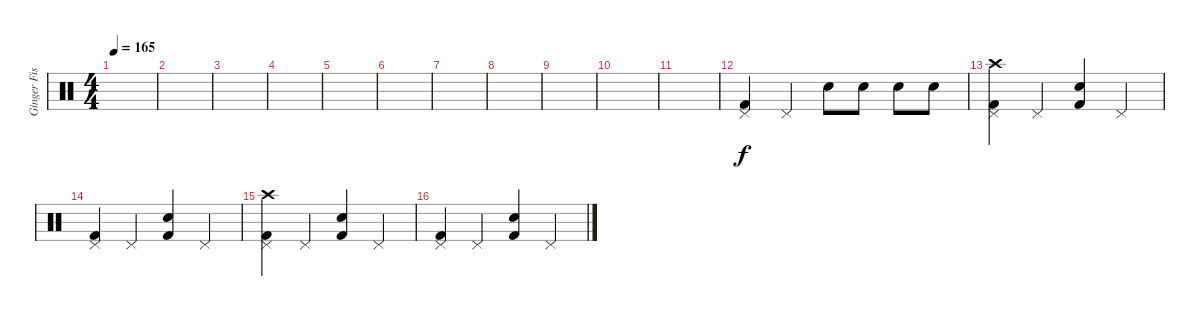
\track ("Ginger Fish" "Ginger Fis") {instrument percussion}
\staff {score}
\articulation defaults
\ts (4 4)
\tempo 165
\clef neutral
\ks c
|
|
|
|
|
|
|
|
|
|
|
("Pedal Hi-Hat (hit)" "Kick (hit) 2").4 "Pedal Hi-Hat (hit)".4 "Electric Snare (hit)".8 "Electric Snare (hit)".8 "Electric Snare (hit)".8 "Electric Snare (hit)".8 |
("Crash high (hit)" "Pedal Hi-Hat (hit)" "Kick (hit) 2").4 "Pedal Hi-Hat (hit)".4 ("Electric Snare (hit)" "Kick (hit) 2").4 "Pedal Hi-Hat (hit)".4 |
("Pedal Hi-Hat (hit)" "Kick (hit) 2").4 "Pedal Hi-Hat (hit)".4 ("Electric Snare (hit)" "Kick (hit) 2").4 "Pedal Hi-Hat (hit)".4 |
("Crash high (hit)" "Pedal Hi-Hat (hit)" "Kick (hit) 2").4 "Pedal Hi-Hat (hit)".4 ("Electric Snare (hit)" "Kick (hit) 2").4 "Pedal Hi-Hat (hit)".4 |
("Pedal Hi-Hat (hit)" "Kick (hit) 2").4 "Pedal Hi-Hat (hit)".4 ("Electric Snare (hit)" "Kick (hit) 2").4 "Pedal Hi-Hat (hit)".4
